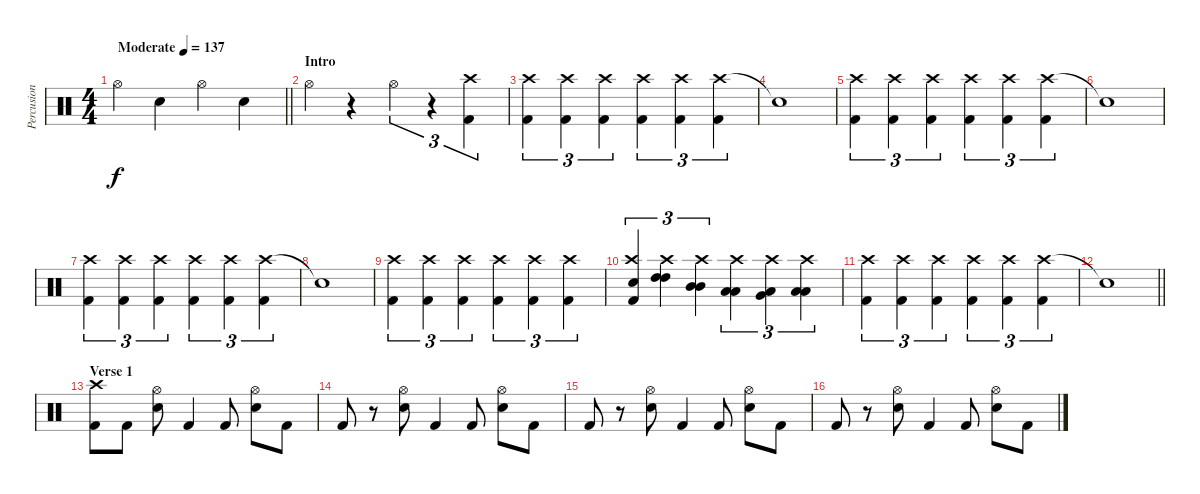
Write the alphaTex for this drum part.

\track ("Percusion" "Percusion") {instrument percussion}
\staff {score}
\articulation defaults
\ts (4 4)
\tempo (137 "Moderate")
\clef neutral
\barLineRight lightlight
\ks c "Hi-Hat (open)".4{dy f} "Snare (hit)".4 "Hi-Hat (open)".4 "Snare (hit)".4
|
\section ("" "Intro")
"Hi-Hat (open)".4 r.4 "Hi-Hat (open)".4{tu (3 2)} r.4{tu (3 2)} ("Crash high (hit)" "Kick (hit) 2").4{tu (3 2)} |
("Crash high (hit)" "Kick (hit) 2").4{tu (3 2)} ("Crash high (hit)" "Kick (hit) 2").4{tu (3 2)} ("Crash high (hit)" "Kick (hit) 2").4{tu (3 2)} ("Crash high (hit)" "Kick (hit) 2").4{tu (3 2)} ("Crash high (hit)" "Kick (hit) 2").4{tu (3 2)} ("Crash high (hit)" "Kick (hit) 2").4{tu (3 2)} |
"Snare (hit)"{t}.1 |
("Crash high (hit)" "Kick (hit) 2").4{tu (3 2)} ("Crash high (hit)" "Kick (hit) 2").4{tu (3 2)} ("Crash high (hit)" "Kick (hit) 2").4{tu (3 2)} ("Crash high (hit)" "Kick (hit) 2").4{tu (3 2)} ("Crash high (hit)" "Kick (hit) 2").4{tu (3 2)} ("Crash high (hit)" "Kick (hit) 2").4{tu (3 2)} |
"Snare (hit)"{t}.1 |
("Crash high (hit)" "Kick (hit) 2").4{tu (3 2)} ("Crash high (hit)" "Kick (hit) 2").4{tu (3 2)} ("Crash high (hit)" "Kick (hit) 2").4{tu (3 2)} ("Crash high (hit)" "Kick (hit) 2").4{tu (3 2)} ("Crash high (hit)" "Kick (hit) 2").4{tu (3 2)} ("Crash high (hit)" "Kick (hit) 2").4{tu (3 2)} |
"Snare (hit)"{t}.1 |
("Crash high (hit)" "Kick (hit) 2").4{tu (3 2)} ("Crash high (hit)" "Kick (hit) 2").4{tu (3 2)} ("Crash high (hit)" "Kick (hit) 2").4{tu (3 2)} ("Crash high (hit)" "Kick (hit) 2").4{tu (3 2)} ("Crash high (hit)" "Kick (hit) 2").4{tu (3 2)} ("Crash high (hit)" "Kick (hit) 2").4{tu (3 2)} |
("Crash high (hit)" "Snare (hit) 2" "Kick (hit) 2").4{tu (3 2)} ("Crash high (hit)" "High Tom (hit)" "High Tom (hit)").4{tu (3 2)} ("Crash high (hit)" "Mid Tom (hit)" "Mid Tom (hit)").4{tu (3 2)} ("Crash high (hit)" "Low Tom (hit)" "Low Tom (hit)").4{tu (3 2)} ("Crash high (hit)" "Very Low Tom (hit)" "Low Tom (hit)").4{tu (3 2)} ("Crash high (hit)" "Low Floor Tom (hit)" "Low Tom (hit)").4{tu (3 2)} |
("Crash high (hit)" "Kick (hit) 2").4{tu (3 2)} ("Crash high (hit)" "Kick (hit) 2").4{tu (3 2)} ("Crash high (hit)" "Kick (hit) 2").4{tu (3 2)} ("Crash high (hit)" "Kick (hit) 2").4{tu (3 2)} ("Crash high (hit)" "Kick (hit) 2").4{tu (3 2)} ("Crash high (hit)" "Kick (hit) 2").4{tu (3 2)} |
\barLineRight lightlight "Snare (hit)"{t}.1
|
\section ("" "Verse 1")
("Crash high (hit)" "Kick (hit) 2").8 "Kick (hit) 2".8 ("Hi-Hat (open)" "Snare (hit) 2").8 "Kick (hit) 2".4 "Kick (hit) 2".8 ("Hi-Hat (open)" "Snare (hit) 2").8 "Kick (hit) 2".8 |
"Kick (hit) 2".8 r.8 ("Hi-Hat (open)" "Snare (hit) 2").8 "Kick (hit) 2".4 "Kick (hit) 2".8 ("Hi-Hat (open)" "Snare (hit) 2").8 "Kick (hit) 2".8 |
"Kick (hit) 2".8 r.8 ("Hi-Hat (open)" "Snare (hit) 2").8 "Kick (hit) 2".4 "Kick (hit) 2".8 ("Hi-Hat (open)" "Snare (hit) 2").8 "Kick (hit) 2".8 |
"Kick (hit) 2".8 r.8 ("Hi-Hat (open)" "Snare (hit) 2").8 "Kick (hit) 2".4 "Kick (hit) 2".8 ("Hi-Hat (open)" "Snare (hit) 2").8 "Kick (hit) 2".8
